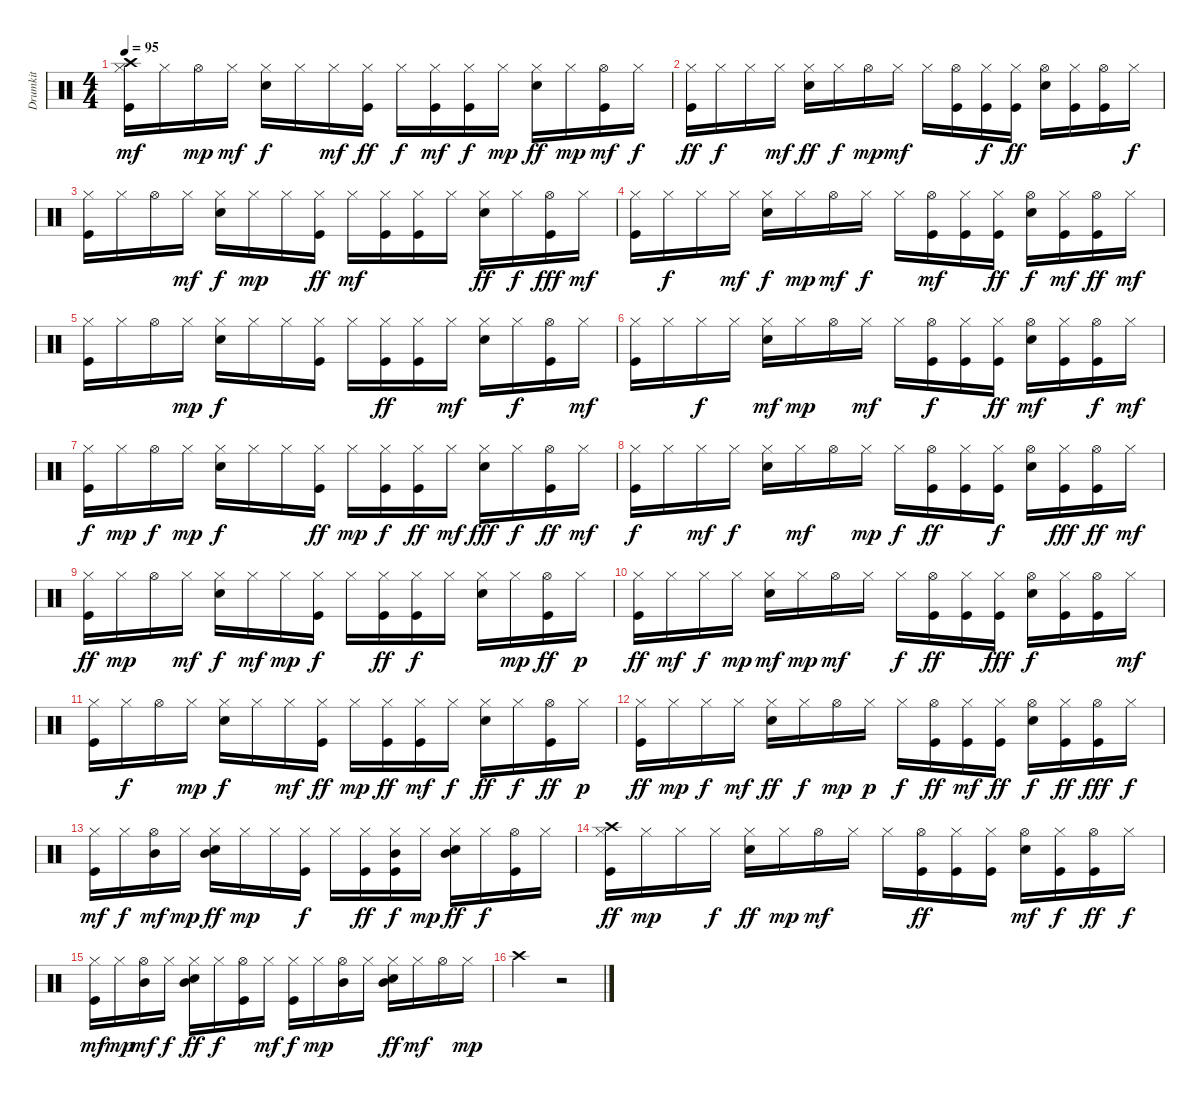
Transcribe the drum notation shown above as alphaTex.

\track ("Drumkit" "Drumkit") {instrument percussion}
\staff {score}
\articulation defaults
\ts (4 4)
\tempo 95
\clef neutral
\ks c
("Kick (hit)" "Hi-Hat (closed)" "Crash high (hit)").16{dy mf} "Hi-Hat (closed)".16 "Hi-Hat (open)".16{dy mp} "Hi-Hat (closed)".16{dy mf} ("Snare (hit) 2" "Hi-Hat (closed)").16{dy f} "Hi-Hat (closed)".16 "Hi-Hat (closed)".16{dy mf} ("Kick (hit)" "Hi-Hat (closed)").16{dy ff} "Hi-Hat (closed)".16{dy f} ("Kick (hit)" "Hi-Hat (closed)").16{dy mf} ("Kick (hit)" "Hi-Hat (closed)").16{dy f} "Hi-Hat (closed)".16{dy mp} ("Snare (hit) 2" "Hi-Hat (closed)").16{dy ff} "Hi-Hat (closed)".16{dy mp} ("Kick (hit)" "Hi-Hat (open)").16{dy mf} "Hi-Hat (closed)".16{dy f} |
("Kick (hit)" "Hi-Hat (closed)").16{dy ff} "Hi-Hat (closed)".16{dy f} "Hi-Hat (closed)".16 "Hi-Hat (closed)".16{dy mf} ("Snare (hit) 2" "Hi-Hat (closed)").16{dy ff} "Hi-Hat (closed)".16{dy f} "Hi-Hat (open)".16{dy mp} "Hi-Hat (closed)".16{dy mf} "Hi-Hat (closed)".16 ("Kick (hit)" "Hi-Hat (open)").16 ("Kick (hit)" "Hi-Hat (closed)").16{dy f} ("Kick (hit)" "Hi-Hat (closed)").16{dy ff} ("Snare (hit) 2" "Hi-Hat (open)").16 ("Kick (hit)" "Hi-Hat (closed)").16 ("Kick (hit)" "Hi-Hat (open)").16 "Hi-Hat (closed)".16{dy f} |
("Kick (hit)" "Hi-Hat (closed)").16 "Hi-Hat (closed)".16 "Hi-Hat (open)".16 "Hi-Hat (closed)".16{dy mf} ("Snare (hit) 2" "Hi-Hat (closed)").16{dy f} "Hi-Hat (closed)".16{dy mp} "Hi-Hat (closed)".16 ("Kick (hit)" "Hi-Hat (closed)").16{dy ff} "Hi-Hat (closed)".16{dy mf} ("Kick (hit)" "Hi-Hat (closed)").16 ("Kick (hit)" "Hi-Hat (closed)").16 "Hi-Hat (closed)".16 ("Snare (hit) 2" "Hi-Hat (closed)").16{dy ff} "Hi-Hat (closed)".16{dy f} ("Kick (hit)" "Hi-Hat (open)").16{dy fff} "Hi-Hat (closed)".16{dy mf} |
("Kick (hit)" "Hi-Hat (closed)").16 "Hi-Hat (closed)".16{dy f} "Hi-Hat (closed)".16 "Hi-Hat (closed)".16{dy mf} ("Snare (hit) 2" "Hi-Hat (closed)").16{dy f} "Hi-Hat (closed)".16{dy mp} "Hi-Hat (open)".16{dy mf} "Hi-Hat (closed)".16{dy f} "Hi-Hat (closed)".16 ("Kick (hit)" "Hi-Hat (open)").16{dy mf} ("Kick (hit)" "Hi-Hat (closed)").16 ("Kick (hit)" "Hi-Hat (closed)").16{dy ff} ("Snare (hit) 2" "Hi-Hat (open)").16{dy f} ("Kick (hit)" "Hi-Hat (closed)").16{dy mf} ("Kick (hit)" "Hi-Hat (open)").16{dy ff} "Hi-Hat (closed)".16{dy mf} |
("Kick (hit)" "Hi-Hat (closed)").16 "Hi-Hat (closed)".16 "Hi-Hat (open)".16 "Hi-Hat (closed)".16{dy mp} ("Snare (hit) 2" "Hi-Hat (closed)").16{dy f} "Hi-Hat (closed)".16 "Hi-Hat (closed)".16 ("Kick (hit)" "Hi-Hat (closed)").16 "Hi-Hat (closed)".16 ("Kick (hit)" "Hi-Hat (closed)").16{dy ff} ("Kick (hit)" "Hi-Hat (closed)").16 "Hi-Hat (closed)".16{dy mf} ("Snare (hit) 2" "Hi-Hat (closed)").16 "Hi-Hat (closed)".16{dy f} ("Kick (hit)" "Hi-Hat (open)").16 "Hi-Hat (closed)".16{dy mf} |
("Kick (hit)" "Hi-Hat (closed)").16 "Hi-Hat (closed)".16 "Hi-Hat (closed)".16{dy f} "Hi-Hat (closed)".16 ("Snare (hit) 2" "Hi-Hat (closed)").16{dy mf} "Hi-Hat (closed)".16{dy mp} "Hi-Hat (open)".16 "Hi-Hat (closed)".16{dy mf} "Hi-Hat (closed)".16 ("Kick (hit)" "Hi-Hat (open)").16{dy f} ("Kick (hit)" "Hi-Hat (closed)").16 ("Kick (hit)" "Hi-Hat (closed)").16{dy ff} ("Snare (hit) 2" "Hi-Hat (open)").16{dy mf} ("Kick (hit)" "Hi-Hat (closed)").16 ("Kick (hit)" "Hi-Hat (open)").16{dy f} "Hi-Hat (closed)".16{dy mf} |
("Kick (hit)" "Hi-Hat (closed)").16{dy f} "Hi-Hat (closed)".16{dy mp} "Hi-Hat (open)".16{dy f} "Hi-Hat (closed)".16{dy mp} ("Snare (hit) 2" "Hi-Hat (closed)").16{dy f} "Hi-Hat (closed)".16 "Hi-Hat (closed)".16 ("Kick (hit)" "Hi-Hat (closed)").16{dy ff} "Hi-Hat (closed)".16{dy mp} ("Kick (hit)" "Hi-Hat (closed)").16{dy f} ("Kick (hit)" "Hi-Hat (closed)").16{dy ff} "Hi-Hat (closed)".16{dy mf} ("Snare (hit) 2" "Hi-Hat (closed)").16{dy fff} "Hi-Hat (closed)".16{dy f} ("Kick (hit)" "Hi-Hat (open)").16{dy ff} "Hi-Hat (closed)".16{dy mf} |
("Kick (hit)" "Hi-Hat (closed)").16{dy f} "Hi-Hat (closed)".16 "Hi-Hat (closed)".16{dy mf} "Hi-Hat (closed)".16{dy f} ("Snare (hit) 2" "Hi-Hat (closed)").16 "Hi-Hat (closed)".16{dy mf} "Hi-Hat (open)".16 "Hi-Hat (closed)".16{dy mp} "Hi-Hat (closed)".16{dy f} ("Kick (hit)" "Hi-Hat (open)").16{dy ff} ("Kick (hit)" "Hi-Hat (closed)").16 ("Kick (hit)" "Hi-Hat (closed)").16{dy f} ("Snare (hit) 2" "Hi-Hat (open)").16 ("Kick (hit)" "Hi-Hat (closed)").16{dy fff} ("Kick (hit)" "Hi-Hat (open)").16{dy ff} "Hi-Hat (closed)".16{dy mf} |
("Kick (hit)" "Hi-Hat (closed)").16{dy ff} "Hi-Hat (closed)".16{dy mp} "Hi-Hat (open)".16 "Hi-Hat (closed)".16{dy mf} ("Snare (hit) 2" "Hi-Hat (closed)").16{dy f} "Hi-Hat (closed)".16{dy mf} "Hi-Hat (closed)".16{dy mp} ("Kick (hit)" "Hi-Hat (closed)").16{dy f} "Hi-Hat (closed)".16 ("Kick (hit)" "Hi-Hat (closed)").16{dy ff} ("Kick (hit)" "Hi-Hat (closed)").16{dy f} "Hi-Hat (closed)".16 ("Snare (hit) 2" "Hi-Hat (closed)").16 "Hi-Hat (closed)".16{dy mp} ("Kick (hit)" "Hi-Hat (open)").16{dy ff} "Hi-Hat (closed)".16{dy p} |
("Kick (hit)" "Hi-Hat (closed)").16{dy ff} "Hi-Hat (closed)".16{dy mf} "Hi-Hat (closed)".16{dy f} "Hi-Hat (closed)".16{dy mp} ("Snare (hit) 2" "Hi-Hat (closed)").16{dy mf} "Hi-Hat (closed)".16{dy mp} "Hi-Hat (open)".16{dy mf} "Hi-Hat (closed)".16 "Hi-Hat (closed)".16{dy f} ("Kick (hit)" "Hi-Hat (open)").16{dy ff} ("Kick (hit)" "Hi-Hat (closed)").16 ("Kick (hit)" "Hi-Hat (closed)").16{dy fff} ("Snare (hit) 2" "Hi-Hat (open)").16{dy f} ("Kick (hit)" "Hi-Hat (closed)").16 ("Kick (hit)" "Hi-Hat (open)").16 "Hi-Hat (closed)".16{dy mf} |
("Kick (hit)" "Hi-Hat (closed)").16 "Hi-Hat (closed)".16{dy f} "Hi-Hat (open)".16 "Hi-Hat (closed)".16{dy mp} ("Snare (hit) 2" "Hi-Hat (closed)").16{dy f} "Hi-Hat (closed)".16 "Hi-Hat (closed)".16{dy mf} ("Kick (hit)" "Hi-Hat (closed)").16{dy ff} "Hi-Hat (closed)".16{dy mp} ("Kick (hit)" "Hi-Hat (closed)").16{dy ff} ("Kick (hit)" "Hi-Hat (closed)").16{dy mf} "Hi-Hat (closed)".16{dy f} ("Snare (hit) 2" "Hi-Hat (closed)").16{dy ff} "Hi-Hat (closed)".16{dy f} ("Kick (hit)" "Hi-Hat (open)").16{dy ff} "Hi-Hat (closed)".16{dy p} |
("Kick (hit)" "Hi-Hat (closed)").16{dy ff} "Hi-Hat (closed)".16{dy mp} "Hi-Hat (closed)".16{dy f} "Hi-Hat (closed)".16{dy mf} ("Snare (hit) 2" "Hi-Hat (closed)").16{dy ff} "Hi-Hat (closed)".16{dy f} "Hi-Hat (open)".16{dy mp} "Hi-Hat (closed)".16{dy p} "Hi-Hat (closed)".16{dy f} ("Kick (hit)" "Hi-Hat (open)").16{dy ff} ("Kick (hit)" "Hi-Hat (closed)").16{dy mf} ("Kick (hit)" "Hi-Hat (closed)").16{dy ff} ("Snare (hit) 2" "Hi-Hat (open)").16{dy f} ("Kick (hit)" "Hi-Hat (closed)").16{dy ff} ("Kick (hit)" "Hi-Hat (open)").16{dy fff} "Hi-Hat (closed)".16{dy f} |
("Kick (hit)" "Hi-Hat (closed)").16{dy mf} "Hi-Hat (closed)".16{dy f} ("Hi-Hat (open)" "Mid Tom (hit)").16{dy mf} "Hi-Hat (closed)".16{dy mp} ("Snare (hit) 2" "Hi-Hat (closed)" "Mid Tom (hit)").16{dy ff} "Hi-Hat (closed)".16{dy mp} "Hi-Hat (closed)".16 ("Kick (hit)" "Hi-Hat (closed)").16{dy f} "Hi-Hat (closed)".16 ("Kick (hit)" "Hi-Hat (closed)").16{dy ff} ("Kick (hit)" "Hi-Hat (closed)" "Mid Tom (hit)").16{dy f} "Hi-Hat (closed)".16{dy mp} ("Snare (hit) 2" "Hi-Hat (closed)" "Mid Tom (hit)").16{dy ff} "Hi-Hat (closed)".16{dy f} ("Kick (hit)" "Hi-Hat (open)").16 "Hi-Hat (closed)".16 |
("Kick (hit)" "Hi-Hat (closed)" "Crash high (hit)").16{dy ff} "Hi-Hat (closed)".16{dy mp} "Hi-Hat (closed)".16 "Hi-Hat (closed)".16{dy f} ("Snare (hit) 2" "Hi-Hat (closed)").16{dy ff} "Hi-Hat (closed)".16{dy mp} "Hi-Hat (open)".16{dy mf} "Hi-Hat (closed)".16 "Hi-Hat (closed)".16 ("Kick (hit)" "Hi-Hat (open)").16{dy ff} ("Kick (hit)" "Hi-Hat (closed)").16 ("Kick (hit)" "Hi-Hat (closed)").16 ("Snare (hit) 2" "Hi-Hat (open)").16{dy mf} ("Kick (hit)" "Hi-Hat (closed)").16{dy f} ("Kick (hit)" "Hi-Hat (open)").16{dy ff} "Hi-Hat (closed)".16{dy f} |
("Kick (hit)" "Hi-Hat (closed)").16{dy mf} "Hi-Hat (closed)".16{dy mp} ("Hi-Hat (open)" "Mid Tom (hit)").16{dy mf} "Hi-Hat (closed)".16{dy f} ("Snare (hit) 2" "Hi-Hat (closed)" "Mid Tom (hit)").16{dy ff} "Hi-Hat (closed)".16{dy f} ("Kick (hit)" "Hi-Hat (open)").16 "Hi-Hat (closed)".16{dy mf} ("Kick (hit)" "Hi-Hat (closed)").16{dy f} "Hi-Hat (closed)".16{dy mp} ("Hi-Hat (open)" "Mid Tom (hit)").16 "Hi-Hat (closed)".16 ("Snare (hit) 2" "Hi-Hat (closed)" "Mid Tom (hit)").16{dy ff} "Hi-Hat (closed)".16{dy mf} "Hi-Hat (open)".16 "Hi-Hat (closed)".16{dy mp} |
"Crash high (hit)".2 r.2
